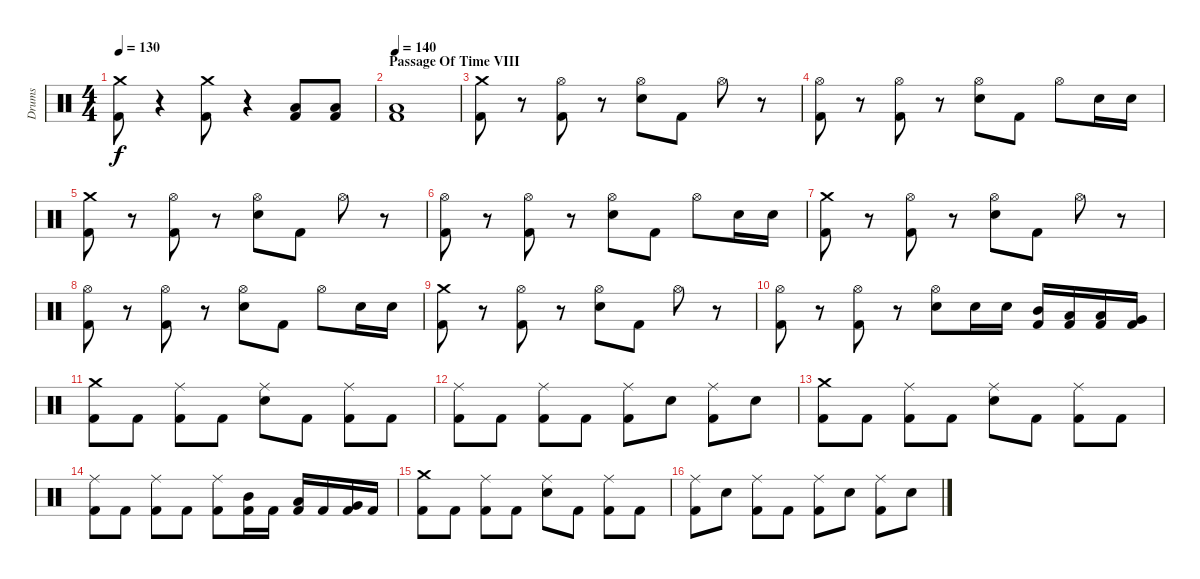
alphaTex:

\track ("Drums" "Drums") {instrument percussion}
\staff {score}
\articulation defaults
\ts (4 4)
\tempo 130
\clef neutral
\ks c
("Crash medium (hit)" "Kick (hit) 2").8{dy f} r.4 ("Crash medium (hit)" "Kick (hit) 2").8 r.4 ("Low Floor Tom (hit)" "Kick (hit) 2").8 ("Low Floor Tom (hit)" "Kick (hit) 2").8 |
\section ("" "Passage Of Time VIII")
\tempo 140
("Low Floor Tom (hit)" "Kick (hit) 2").1 |
("Crash medium (hit)" "Kick (hit) 2").8 r.8 ("Hi-Hat (open)" "Kick (hit) 2").8 r.8 ("Hi-Hat (open)" "Electric Snare (hit)").8 "Kick (hit) 2".8 "Hi-Hat (open)".8 r.8 |
("Hi-Hat (open)" "Kick (hit) 2").8 r.8 ("Hi-Hat (open)" "Kick (hit) 2").8 r.8 ("Hi-Hat (open)" "Electric Snare (hit)").8 "Kick (hit) 2".8 "Hi-Hat (open)".8 "Electric Snare (hit)".16 "Electric Snare (hit)".16 |
("Crash medium (hit)" "Kick (hit) 2").8 r.8 ("Hi-Hat (open)" "Kick (hit) 2").8 r.8 ("Hi-Hat (open)" "Electric Snare (hit)").8 "Kick (hit) 2".8 "Hi-Hat (open)".8 r.8 |
("Hi-Hat (open)" "Kick (hit) 2").8 r.8 ("Hi-Hat (open)" "Kick (hit) 2").8 r.8 ("Hi-Hat (open)" "Electric Snare (hit)").8 "Kick (hit) 2".8 "Hi-Hat (open)".8 "Electric Snare (hit)".16 "Electric Snare (hit)".16 |
("Crash medium (hit)" "Kick (hit) 2").8 r.8 ("Hi-Hat (open)" "Kick (hit) 2").8 r.8 ("Hi-Hat (open)" "Electric Snare (hit)").8 "Kick (hit) 2".8 "Hi-Hat (open)".8 r.8 |
("Hi-Hat (open)" "Kick (hit) 2").8 r.8 ("Hi-Hat (open)" "Kick (hit) 2").8 r.8 ("Hi-Hat (open)" "Electric Snare (hit)").8 "Kick (hit) 2".8 "Hi-Hat (open)".8 "Electric Snare (hit)".16 "Electric Snare (hit)".16 |
("Crash medium (hit)" "Kick (hit) 2").8 r.8 ("Hi-Hat (open)" "Kick (hit) 2").8 r.8 ("Hi-Hat (open)" "Electric Snare (hit)").8 "Kick (hit) 2".8 "Hi-Hat (open)".8 r.8 |
("Hi-Hat (open)" "Kick (hit) 2").8 r.8 ("Hi-Hat (open)" "Kick (hit) 2").8 r.8 ("Hi-Hat (open)" "Electric Snare (hit)").8 "Electric Snare (hit)".16 "Electric Snare (hit)".16 ("Mid Tom (hit)" "Kick (hit) 2").16 ("Low Tom (hit)" "Kick (hit) 2").16 ("Low Tom (hit)" "Kick (hit) 2").16 ("Very Low Tom (hit)" "Kick (hit) 2").16 |
\section ("" "")
("Crash medium (hit)" "Kick (hit) 2").8 "Kick (hit) 2".8 ("Ride (middle)" "Kick (hit) 2").8 "Kick (hit) 2".8 ("Ride (middle)" "Electric Snare (hit)").8 "Kick (hit) 2".8 ("Ride (middle)" "Kick (hit) 2").8 "Kick (hit) 2".8 |
("Ride (middle)" "Kick (hit) 2").8 "Kick (hit) 2".8 ("Ride (middle)" "Kick (hit) 2").8 "Kick (hit) 2".8 ("Ride (middle)" "Kick (hit) 2").8 "Electric Snare (hit)".8 ("Ride (middle)" "Kick (hit) 2").8 "Electric Snare (hit)".8 |
("Crash medium (hit)" "Kick (hit) 2").8 "Kick (hit) 2".8 ("Ride (middle)" "Kick (hit) 2").8 "Kick (hit) 2".8 ("Ride (middle)" "Electric Snare (hit)").8 "Kick (hit) 2".8 ("Ride (middle)" "Kick (hit) 2").8 "Kick (hit) 2".8 |
("Ride (middle)" "Kick (hit) 2").8 "Kick (hit) 2".8 ("Ride (middle)" "Kick (hit) 2").8 "Kick (hit) 2".8 ("Ride (middle)" "Kick (hit) 2").8 ("Mid Tom (hit)" "Kick (hit) 2").16 "Kick (hit) 2".16 ("Low Tom (hit)" "Kick (hit) 2").16 "Kick (hit) 2".16 ("Very Low Tom (hit)" "Kick (hit) 2").16 "Kick (hit) 2".16 |
("Crash medium (hit)" "Kick (hit) 2").8 "Kick (hit) 2".8 ("Ride (middle)" "Kick (hit) 2").8 "Kick (hit) 2".8 ("Ride (middle)" "Electric Snare (hit)").8 "Kick (hit) 2".8 ("Ride (middle)" "Kick (hit) 2").8 "Kick (hit) 2".8 |
("Ride (middle)" "Kick (hit) 2").8 "Electric Snare (hit)".8 ("Ride (middle)" "Kick (hit) 2").8 "Kick (hit) 2".8 ("Ride (middle)" "Kick (hit) 2").8 "Electric Snare (hit)".8 ("Ride (middle)" "Kick (hit) 2").8 "Electric Snare (hit)".8
